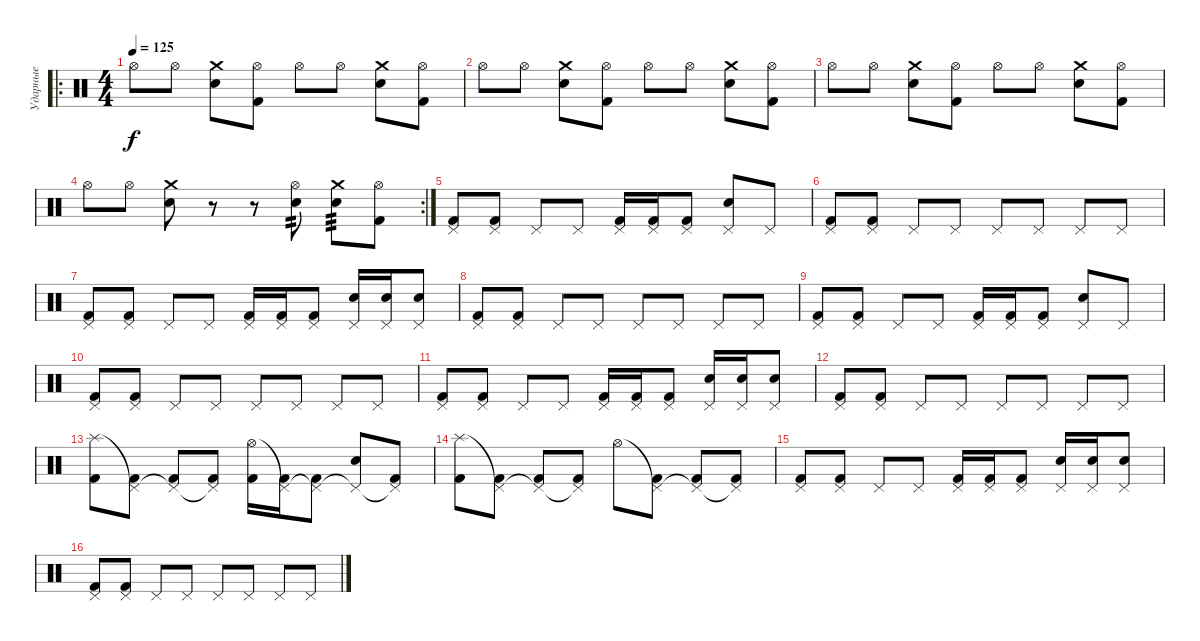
\track ("Ударные" "Ударные") {instrument percussion}
\staff {score}
\articulation defaults
\ro
\ts (4 4)
\tempo 125
\clef neutral
\ks c "Hi-Hat (open)".8{dy f} "Hi-Hat (open)".8
("Crash medium (hit)" "Electric Snare (hit)").8 ("Hi-Hat (open)" "Kick (hit) 2").8 "Hi-Hat (open)".8 "Hi-Hat (open)".8 ("Crash medium (hit)" "Electric Snare (hit)").8 ("Hi-Hat (open)" "Kick (hit) 2").8 |
"Hi-Hat (open)".8 "Hi-Hat (open)".8 ("Crash medium (hit)" "Electric Snare (hit)").8 ("Hi-Hat (open)" "Kick (hit) 2").8 "Hi-Hat (open)".8 "Hi-Hat (open)".8 ("Crash medium (hit)" "Electric Snare (hit)").8 ("Hi-Hat (open)" "Kick (hit) 2").8 |
"Hi-Hat (open)".8 "Hi-Hat (open)".8 ("Crash medium (hit)" "Electric Snare (hit)").8 ("Hi-Hat (open)" "Kick (hit) 2").8 "Hi-Hat (open)".8 "Hi-Hat (open)".8 ("Crash medium (hit)" "Electric Snare (hit)").8 ("Hi-Hat (open)" "Kick (hit) 2").8 |
\rc 2 "Hi-Hat (open)".8 "Hi-Hat (open)".8
("Crash medium (hit)" "Electric Snare (hit)").8 r.8 r.8 ("Hi-Hat (open)" "Electric Snare (hit)").8{tp 2} ("Crash medium (hit)" "Electric Snare (hit)").8{tp 3} ("Hi-Hat (open)" "Kick (hit) 2").8 |
("Pedal Hi-Hat (hit)" "Kick (hit) 2").8 ("Pedal Hi-Hat (hit)" "Kick (hit) 2").8 "Pedal Hi-Hat (hit)".8 "Pedal Hi-Hat (hit)".8 ("Pedal Hi-Hat (hit)" "Kick (hit) 2").16 ("Pedal Hi-Hat (hit)" "Kick (hit) 2").16 ("Pedal Hi-Hat (hit)" "Kick (hit) 2").8 ("Pedal Hi-Hat (hit)" "Electric Snare (hit)").8 "Pedal Hi-Hat (hit)".8 |
("Pedal Hi-Hat (hit)" "Kick (hit) 2").8 ("Pedal Hi-Hat (hit)" "Kick (hit) 2").8 "Pedal Hi-Hat (hit)".8 "Pedal Hi-Hat (hit)".8 "Pedal Hi-Hat (hit)".8 "Pedal Hi-Hat (hit)".8 "Pedal Hi-Hat (hit)".8 "Pedal Hi-Hat (hit)".8 |
("Pedal Hi-Hat (hit)" "Kick (hit) 2").8 ("Pedal Hi-Hat (hit)" "Kick (hit) 2").8 "Pedal Hi-Hat (hit)".8 "Pedal Hi-Hat (hit)".8 ("Pedal Hi-Hat (hit)" "Kick (hit) 2").16 ("Pedal Hi-Hat (hit)" "Kick (hit) 2").16 ("Pedal Hi-Hat (hit)" "Kick (hit) 2").8 ("Pedal Hi-Hat (hit)" "Electric Snare (hit)").16 ("Pedal Hi-Hat (hit)" "Electric Snare (hit)").16 ("Pedal Hi-Hat (hit)" "Electric Snare (hit)").8 |
("Pedal Hi-Hat (hit)" "Kick (hit) 2").8 ("Pedal Hi-Hat (hit)" "Kick (hit) 2").8 "Pedal Hi-Hat (hit)".8 "Pedal Hi-Hat (hit)".8 "Pedal Hi-Hat (hit)".8 "Pedal Hi-Hat (hit)".8 "Pedal Hi-Hat (hit)".8 "Pedal Hi-Hat (hit)".8 |
("Pedal Hi-Hat (hit)" "Kick (hit) 2").8 ("Pedal Hi-Hat (hit)" "Kick (hit) 2").8 "Pedal Hi-Hat (hit)".8 "Pedal Hi-Hat (hit)".8 ("Pedal Hi-Hat (hit)" "Kick (hit) 2").16 ("Pedal Hi-Hat (hit)" "Kick (hit) 2").16 ("Pedal Hi-Hat (hit)" "Kick (hit) 2").8 ("Pedal Hi-Hat (hit)" "Electric Snare (hit)").8 "Pedal Hi-Hat (hit)".8 |
("Pedal Hi-Hat (hit)" "Kick (hit) 2").8 ("Pedal Hi-Hat (hit)" "Kick (hit) 2").8 "Pedal Hi-Hat (hit)".8 "Pedal Hi-Hat (hit)".8 "Pedal Hi-Hat (hit)".8 "Pedal Hi-Hat (hit)".8 "Pedal Hi-Hat (hit)".8 "Pedal Hi-Hat (hit)".8 |
("Pedal Hi-Hat (hit)" "Kick (hit) 2").8 ("Pedal Hi-Hat (hit)" "Kick (hit) 2").8 "Pedal Hi-Hat (hit)".8 "Pedal Hi-Hat (hit)".8 ("Pedal Hi-Hat (hit)" "Kick (hit) 2").16 ("Pedal Hi-Hat (hit)" "Kick (hit) 2").16 ("Pedal Hi-Hat (hit)" "Kick (hit) 2").8 ("Pedal Hi-Hat (hit)" "Electric Snare (hit)").16 ("Pedal Hi-Hat (hit)" "Electric Snare (hit)").16 ("Pedal Hi-Hat (hit)" "Electric Snare (hit)").8 |
("Pedal Hi-Hat (hit)" "Kick (hit) 2").8 ("Pedal Hi-Hat (hit)" "Kick (hit) 2").8 "Pedal Hi-Hat (hit)".8 "Pedal Hi-Hat (hit)".8 "Pedal Hi-Hat (hit)".8 "Pedal Hi-Hat (hit)".8 "Pedal Hi-Hat (hit)".8 "Pedal Hi-Hat (hit)".8 |
("Splash (hit)" "Kick (hit) 2").8 ("Pedal Hi-Hat (hit)"{t} "Kick (hit) 2").8 ("Pedal Hi-Hat (hit)"{t} "Kick (hit) 2").8 ("Pedal Hi-Hat (hit)"{t} "Kick (hit) 2").8 ("Hi-Hat (open)" "Kick (hit) 2").16 ("Pedal Hi-Hat (hit)"{t} "Kick (hit) 2").16 ("Pedal Hi-Hat (hit)"{t} "Kick (hit) 2").8 ("Pedal Hi-Hat (hit)"{t} "Electric Snare (hit)").8 ("Pedal Hi-Hat (hit)"{t} "Kick (hit) 2").8 |
("Splash (hit)" "Kick (hit) 2").8 ("Pedal Hi-Hat (hit)"{t} "Kick (hit) 2").8 ("Pedal Hi-Hat (hit)"{t} "Kick (hit) 2").8 ("Pedal Hi-Hat (hit)"{t} "Kick (hit) 2").8 "Hi-Hat (open)".8 ("Pedal Hi-Hat (hit)"{t} "Kick (hit) 2").8 ("Pedal Hi-Hat (hit)"{t} "Kick (hit) 2").8 ("Pedal Hi-Hat (hit)"{t} "Kick (hit) 2").8 |
("Pedal Hi-Hat (hit)" "Kick (hit) 2").8 ("Pedal Hi-Hat (hit)" "Kick (hit) 2").8 "Pedal Hi-Hat (hit)".8 "Pedal Hi-Hat (hit)".8 ("Pedal Hi-Hat (hit)" "Kick (hit) 2").16 ("Pedal Hi-Hat (hit)" "Kick (hit) 2").16 ("Pedal Hi-Hat (hit)" "Kick (hit) 2").8 ("Pedal Hi-Hat (hit)" "Electric Snare (hit)").16 ("Pedal Hi-Hat (hit)" "Electric Snare (hit)").16 ("Pedal Hi-Hat (hit)" "Electric Snare (hit)").8 |
("Pedal Hi-Hat (hit)" "Kick (hit) 2").8 ("Pedal Hi-Hat (hit)" "Kick (hit) 2").8 "Pedal Hi-Hat (hit)".8 "Pedal Hi-Hat (hit)".8 "Pedal Hi-Hat (hit)".8 "Pedal Hi-Hat (hit)".8 "Pedal Hi-Hat (hit)".8 "Pedal Hi-Hat (hit)".8
